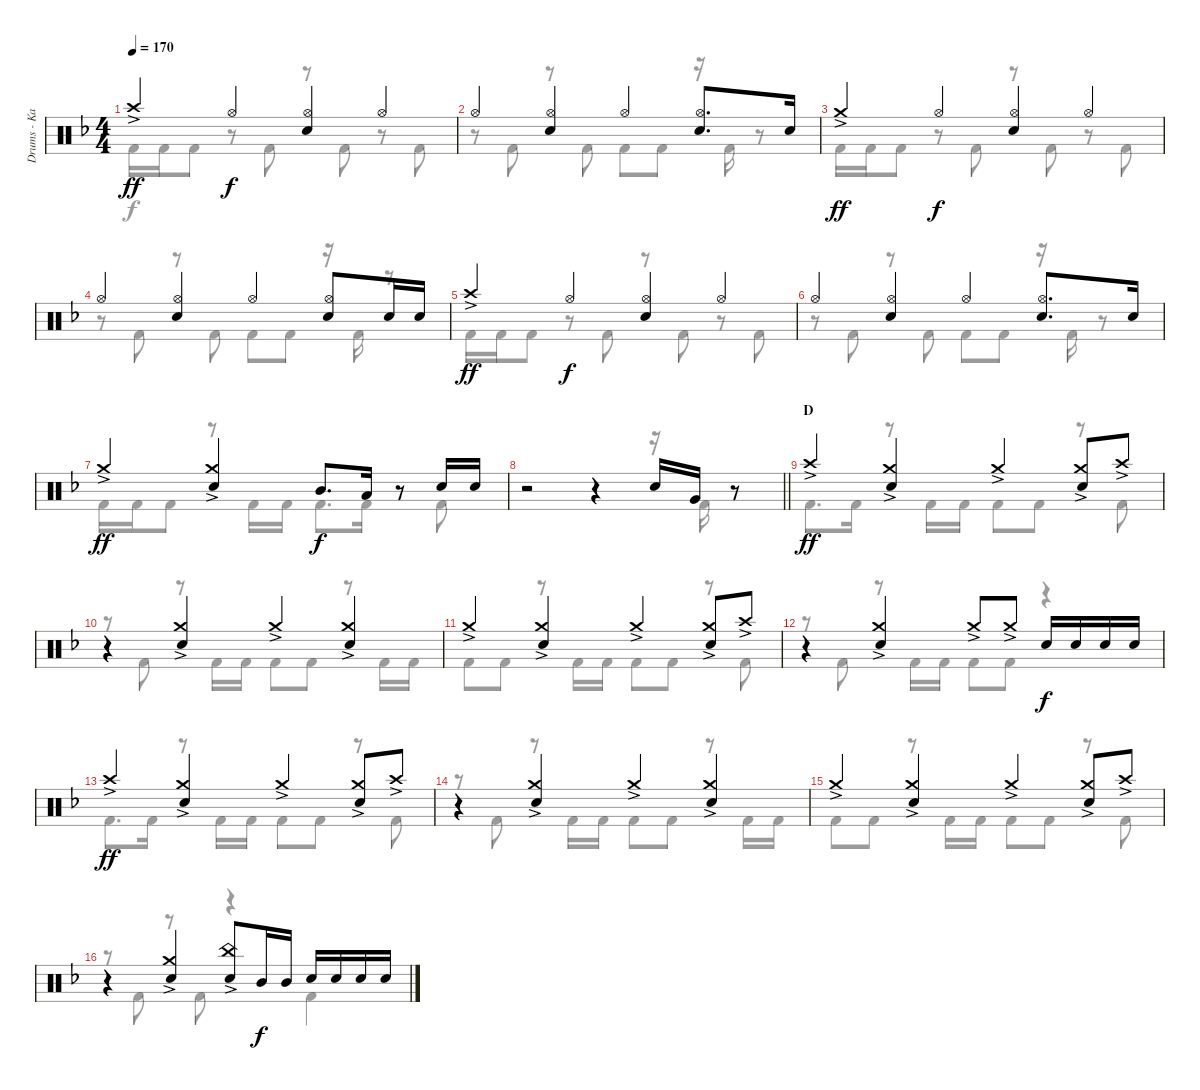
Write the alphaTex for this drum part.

\track ("Drums - Kai" "Drums - Ka") {instrument percussion}
\staff {score}
\articulation defaults
\voice
\ts (4 4)
\tempo 170
\clef neutral
\ks f "Crash high (hit)"{ac}.4{dy ff} "Hi-Hat (open)".4{dy f}
("Hi-Hat (open)" "Snare (hit) 2").4 "Hi-Hat (open)".4 |
"Hi-Hat (open)".4 ("Hi-Hat (open)" "Snare (hit) 2").4 "Hi-Hat (open)".4 ("Hi-Hat (open)" "Snare (hit) 2").8{d} "Snare (hit) 2".16 |
"Crash medium (hit)"{ac}.4{dy ff} "Hi-Hat (open)".4{dy f} ("Hi-Hat (open)" "Snare (hit) 2").4 "Hi-Hat (open)".4 |
"Hi-Hat (open)".4 ("Hi-Hat (open)" "Snare (hit) 2").4 "Hi-Hat (open)".4 ("Hi-Hat (open)" "Snare (hit) 2").8 "Snare (hit) 2".16 "Snare (hit) 2".16 |
"Crash high (hit)"{ac}.4{dy ff} "Hi-Hat (open)".4{dy f} ("Hi-Hat (open)" "Snare (hit) 2").4 "Hi-Hat (open)".4 |
"Hi-Hat (open)".4 ("Hi-Hat (open)" "Snare (hit) 2").4 "Hi-Hat (open)".4 ("Hi-Hat (open)" "Snare (hit) 2").8{d} "Snare (hit) 2".16 |
"Crash medium (hit)"{ac}.4{dy ff} ("Crash medium (hit)"{ac} "Snare (hit) 2").4 "Mid Tom (hit)".8{d dy f} "Low Tom (hit)".16 r.8 "Snare (hit) 2".16 "Snare (hit) 2".16 |
\barLineRight lightlight
r.2 r.4 "Snare (hit) 2".16 "Very Low Tom (hit)".16 r.8 |
\section ("" "D")
"Crash high (hit)"{ac}.4{dy ff} ("Crash medium (hit)"{ac} "Snare (hit) 2").4 "Crash medium (hit)"{ac}.4 ("Crash medium (hit)"{ac} "Snare (hit) 2").8 "Crash high (hit)"{ac}.8 |
r.4 ("Crash medium (hit)"{ac} "Snare (hit) 2").4 "Crash medium (hit)"{ac}.4 ("Crash medium (hit)"{ac} "Snare (hit) 2").4 |
"Crash medium (hit)"{ac}.4 ("Crash medium (hit)"{ac} "Snare (hit) 2").4 "Crash medium (hit)"{ac}.4 ("Crash medium (hit)"{ac} "Snare (hit) 2").8 "Crash high (hit)"{ac}.8 |
r.4 ("Crash medium (hit)"{ac} "Snare (hit) 2").4 "Crash medium (hit)"{ac}.8 "Crash medium (hit)"{ac}.8 "Snare (hit) 2".16{dy f} "Snare (hit) 2".16 "Snare (hit) 2".16 "Snare (hit) 2".16 |
"Crash high (hit)"{ac}.4{dy ff} ("Crash medium (hit)"{ac} "Snare (hit) 2").4 "Crash medium (hit)"{ac}.4 ("Crash medium (hit)"{ac} "Snare (hit) 2").8 "Crash high (hit)"{ac}.8 |
r.4 ("Crash medium (hit)"{ac} "Snare (hit) 2").4 "Crash medium (hit)"{ac}.4 ("Crash medium (hit)"{ac} "Snare (hit) 2").4 |
"Crash medium (hit)"{ac}.4 ("Crash medium (hit)"{ac} "Snare (hit) 2").4 "Crash medium (hit)"{ac}.4 ("Crash medium (hit)"{ac} "Snare (hit) 2").8 "Crash high (hit)"{ac}.8 |
r.4 ("Crash medium (hit)"{ac} "Snare (hit) 2").4 ("China (hit)"{ac} "Snare (hit) 2").8 "Mid Tom (hit)".16{dy f} "Mid Tom (hit)".16 "Snare (hit) 2".16 "Snare (hit) 2".16 "Snare (hit) 2".16 "Snare (hit) 2".16
\voice
\clef neutral
\ottava regular
\simile none
\ks f "Kick (hit) 2".16{dy f} "Kick (hit) 2".16 "Kick (hit) 2".8
r.8 "Kick (hit) 2".8 r.8 "Kick (hit) 2".8 r.8 "Kick (hit) 2".8 |
r.8 "Kick (hit) 2".8 r.8 "Kick (hit) 2".8 "Kick (hit) 2".8 "Kick (hit) 2".8 r.16 "Kick (hit) 2".16 r.8 |
"Kick (hit) 2".16 "Kick (hit) 2".16 "Kick (hit) 2".8 r.8 "Kick (hit) 2".8 r.8 "Kick (hit) 2".8 r.8 "Kick (hit) 2".8 |
r.8 "Kick (hit) 2".8 r.8 "Kick (hit) 2".8 "Kick (hit) 2".8 "Kick (hit) 2".8 r.16 "Kick (hit) 2".16 r.8 |
"Kick (hit) 2".16 "Kick (hit) 2".16 "Kick (hit) 2".8 r.8 "Kick (hit) 2".8 r.8 "Kick (hit) 2".8 r.8 "Kick (hit) 2".8 |
r.8 "Kick (hit) 2".8 r.8 "Kick (hit) 2".8 "Kick (hit) 2".8 "Kick (hit) 2".8 r.16 "Kick (hit) 2".16 r.8 |
"Kick (hit) 2".16 "Kick (hit) 2".16 "Kick (hit) 2".8 r.8 "Kick (hit) 2".16 "Kick (hit) 2".16 "Kick (hit) 2".8{d} "Kick (hit) 2".16 r.8 "Kick (hit) 2".8 |
\barLineRight lightlight
r.2 r.4 r.16 "Kick (hit) 2".16 r.8 |
"Kick (hit) 2".8{d} "Kick (hit) 2".16 r.8 "Kick (hit) 2".16 "Kick (hit) 2".16 "Kick (hit) 2".8 "Kick (hit) 2".8 r.8 "Kick (hit) 2".8 |
r.8 "Kick (hit) 2".8 r.8 "Kick (hit) 2".16 "Kick (hit) 2".16 "Kick (hit) 2".8 "Kick (hit) 2".8 r.8 "Kick (hit) 2".16 "Kick (hit) 2".16 |
"Kick (hit) 2".8 "Kick (hit) 2".8 r.8 "Kick (hit) 2".16 "Kick (hit) 2".16 "Kick (hit) 2".8 "Kick (hit) 2".8 r.8 "Kick (hit) 2".8 |
r.8 "Kick (hit) 2".8 r.8 "Kick (hit) 2".16 "Kick (hit) 2".16 "Kick (hit) 2".8 "Kick (hit) 2".8 r.4 |
"Kick (hit) 2".8{d} "Kick (hit) 2".16 r.8 "Kick (hit) 2".16 "Kick (hit) 2".16 "Kick (hit) 2".8 "Kick (hit) 2".8 r.8 "Kick (hit) 2".8 |
r.8 "Kick (hit) 2".8 r.8 "Kick (hit) 2".16 "Kick (hit) 2".16 "Kick (hit) 2".8 "Kick (hit) 2".8 r.8 "Kick (hit) 2".16 "Kick (hit) 2".16 |
"Kick (hit) 2".8 "Kick (hit) 2".8 r.8 "Kick (hit) 2".16 "Kick (hit) 2".16 "Kick (hit) 2".8 "Kick (hit) 2".8 r.8 "Kick (hit) 2".8 |
r.8 "Kick (hit) 2".8 r.8 "Kick (hit) 2".8 r.4 "Kick (hit) 2".4
